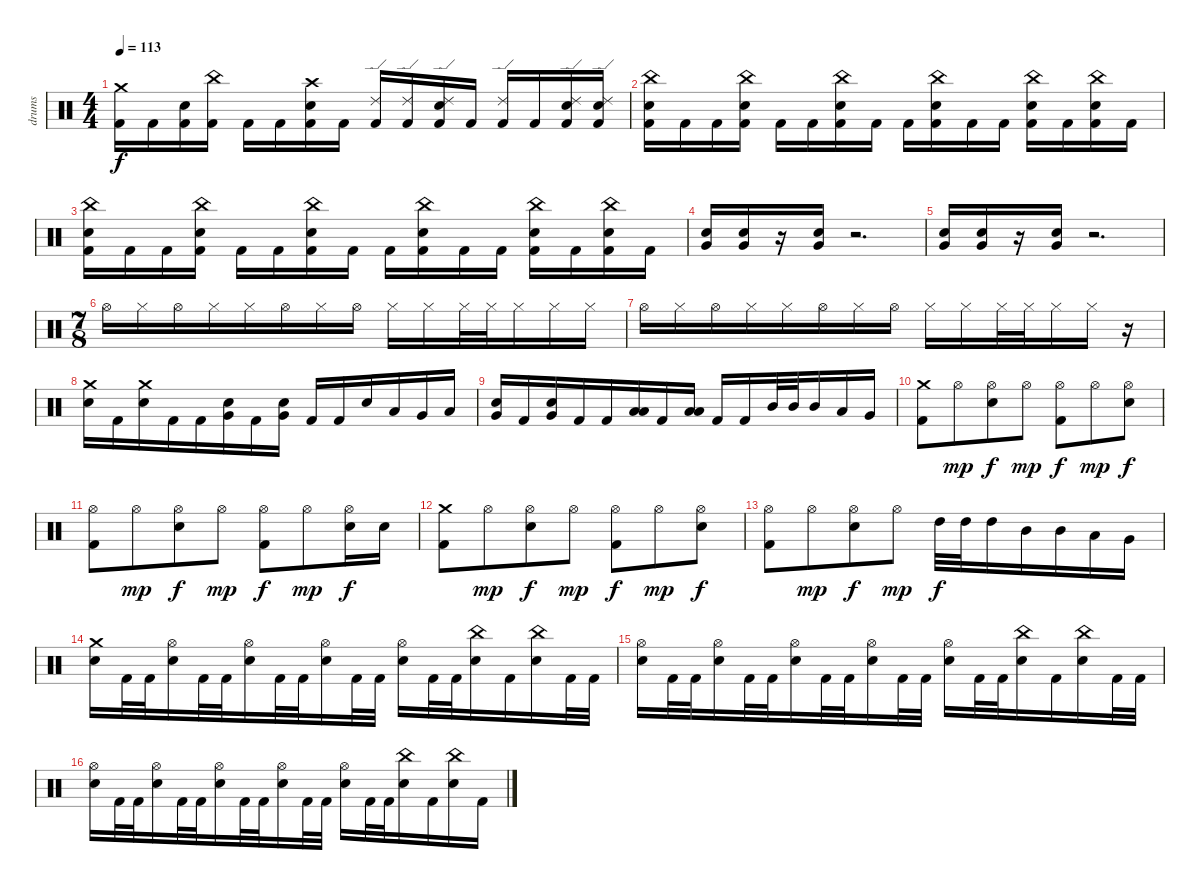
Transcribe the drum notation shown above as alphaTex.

\track ("drums" "drums") {instrument percussion}
\staff {score}
\articulation defaults
\ts (4 4)
\tempo 113
\clef neutral
\ks c
("Crash medium (hit)" "Kick (hit) 2").16{dy f} "Kick (hit) 2".16 ("Electric Snare (hit)" "Kick (hit) 2").16 ("China (hit)" "Kick (hit) 2").16 "Kick (hit) 2".16 "Kick (hit) 2".16 ("Crash high (hit)" "Electric Snare (hit)" "Kick (hit) 2").16 "Kick (hit) 2".16 ("Ride (edge) 2" "Kick (hit) 2").16 ("Ride (edge) 2" "Kick (hit) 2").16 ("Ride (edge) 2" "Electric Snare (hit)" "Kick (hit) 2").16 "Kick (hit) 2".16 ("Ride (edge) 2" "Kick (hit) 2").16 "Kick (hit) 2".16 ("Ride (edge) 2" "Electric Snare (hit)" "Kick (hit) 2").16 ("Ride (edge) 2" "Electric Snare (hit)" "Kick (hit) 2").16 |
("China (hit)" "Kick (hit) 2" "Electric Snare (hit)").16 "Kick (hit) 2".16 "Kick (hit) 2".16 ("China (hit)" "Electric Snare (hit)" "Kick (hit) 2").16 "Kick (hit) 2".16 "Kick (hit) 2".16 ("China (hit)" "Electric Snare (hit)" "Kick (hit) 2").16 "Kick (hit) 2".16 "Kick (hit) 2".16 ("China (hit)" "Electric Snare (hit)" "Kick (hit) 2").16 "Kick (hit) 2".16 "Kick (hit) 2".16 ("China (hit)" "Electric Snare (hit)" "Kick (hit) 2").16 "Kick (hit) 2".16 ("China (hit)" "Electric Snare (hit)" "Kick (hit) 2").16 "Kick (hit) 2".16 |
("China (hit)" "Kick (hit) 2" "Electric Snare (hit)").16 "Kick (hit) 2".16 "Kick (hit) 2".16 ("China (hit)" "Electric Snare (hit)" "Kick (hit) 2").16 "Kick (hit) 2".16 "Kick (hit) 2".16 ("China (hit)" "Electric Snare (hit)" "Kick (hit) 2").16 "Kick (hit) 2".16 "Kick (hit) 2".16 ("China (hit)" "Electric Snare (hit)" "Kick (hit) 2").16 "Kick (hit) 2".16 "Kick (hit) 2".16 ("China (hit)" "Electric Snare (hit)" "Kick (hit) 2").16 "Kick (hit) 2".16 ("China (hit)" "Electric Snare (hit)" "Kick (hit) 2").16 "Kick (hit) 2".16 |
("Very Low Tom (hit)" "Electric Snare (hit)").16 ("Very Low Tom (hit)" "Electric Snare (hit)").16 r.16 ("Very Low Tom (hit)" "Electric Snare (hit)").16 r.2{d} |
("Very Low Tom (hit)" "Electric Snare (hit)").16 ("Very Low Tom (hit)" "Electric Snare (hit)").16 r.16 ("Very Low Tom (hit)" "Electric Snare (hit)").16 r.2{d} |
\ts (7 8)
"Hi-Hat (open)".16 "Hi-Hat (closed)".16 "Hi-Hat (open)".16 "Hi-Hat (closed)".16 "Hi-Hat (closed)".16 "Hi-Hat (open)".16 "Hi-Hat (closed)".16 "Hi-Hat (open)".16 "Hi-Hat (closed)".16 "Hi-Hat (closed)".16 "Hi-Hat (closed)".32 "Hi-Hat (closed)".32 "Hi-Hat (closed)".16 "Hi-Hat (closed)".16 "Hi-Hat (closed)".16 |
"Hi-Hat (open)".16 "Hi-Hat (closed)".16 "Hi-Hat (open)".16 "Hi-Hat (closed)".16 "Hi-Hat (closed)".16 "Hi-Hat (open)".16 "Hi-Hat (closed)".16 "Hi-Hat (open)".16 "Hi-Hat (closed)".16 "Hi-Hat (closed)".16 "Hi-Hat (closed)".32 "Hi-Hat (closed)".32 "Hi-Hat (closed)".16 "Hi-Hat (closed)".16 r.16 |
("Crash medium (hit)" "Electric Snare (hit)").16 "Kick (hit) 2".16 ("Crash medium (hit)" "Electric Snare (hit)").16 "Kick (hit) 2".16 "Kick (hit) 2".16 ("Very Low Tom (hit)" "Electric Snare (hit)").16 "Kick (hit) 2".16 ("Very Low Tom (hit)" "Electric Snare (hit)").16 "Kick (hit) 2".16 "Kick (hit) 2".16 "Electric Snare (hit)".16 "Low Tom (hit)".16 "Very Low Tom (hit)".16 "Low Floor Tom (hit)".16 |
("Very Low Tom (hit)" "Electric Snare (hit)").16 "Kick (hit) 2".16 ("Very Low Tom (hit)" "Electric Snare (hit)").16 "Kick (hit) 2".16 "Kick (hit) 2".16 ("Low Tom (hit)" "Low Floor Tom (hit)").16 "Kick (hit) 2".16 ("Low Tom (hit)" "Low Floor Tom (hit)").16 "Kick (hit) 2".16 "Kick (hit) 2".16 "Mid Tom (hit)".32 "Mid Tom (hit)".32 "Mid Tom (hit)".16 "Low Tom (hit)".16 "Very Low Tom (hit)".16 |
("Kick (hit) 2" "Crash medium (hit)").8 "Hi-Hat (open)".8{dy mp} ("Electric Snare (hit)" "Hi-Hat (open)").8{dy f} "Hi-Hat (open)".8{dy mp} ("Kick (hit) 2" "Hi-Hat (open)").8{dy f} "Hi-Hat (open)".8{dy mp} ("Electric Snare (hit)" "Hi-Hat (open)").8{dy f} |
("Hi-Hat (open)" "Kick (hit) 2").8 "Hi-Hat (open)".8{dy mp} ("Electric Snare (hit)" "Hi-Hat (open)").8{dy f} "Hi-Hat (open)".8{dy mp} ("Kick (hit) 2" "Hi-Hat (open)").8{dy f} "Hi-Hat (open)".8{dy mp} ("Electric Snare (hit)" "Hi-Hat (open)").16{dy f} "Electric Snare (hit)".16 |
("Kick (hit) 2" "Crash medium (hit)").8 "Hi-Hat (open)".8{dy mp} ("Electric Snare (hit)" "Hi-Hat (open)").8{dy f} "Hi-Hat (open)".8{dy mp} ("Kick (hit) 2" "Hi-Hat (open)").8{dy f} "Hi-Hat (open)".8{dy mp} ("Electric Snare (hit)" "Hi-Hat (open)").8{dy f} |
("Hi-Hat (open)" "Kick (hit) 2").8 "Hi-Hat (open)".8{dy mp} ("Electric Snare (hit)" "Hi-Hat (open)").8{dy f} "Hi-Hat (open)".8{dy mp} "High Tom (hit)".32{dy f} "High Tom (hit)".32 "High Tom (hit)".16 "Mid Tom (hit)".16 "Mid Tom (hit)".16 "Low Tom (hit)".16 "Very Low Tom (hit)".16 |
("Crash medium (hit)" "Electric Snare (hit)").16 "Kick (hit) 2".32 "Kick (hit) 2".32 ("Hi-Hat (open)" "Electric Snare (hit)").16 "Kick (hit) 2".32 "Kick (hit) 2".32 ("Hi-Hat (open)" "Electric Snare (hit)").16 "Kick (hit) 2".32 "Kick (hit) 2".32 ("Hi-Hat (open)" "Electric Snare (hit)").16 "Kick (hit) 2".32 "Kick (hit) 2".32 ("Hi-Hat (open)" "Electric Snare (hit)").16 "Kick (hit) 2".32 "Kick (hit) 2".32 ("China (hit)" "Electric Snare (hit)").16 "Kick (hit) 2".16 ("China (hit)" "Electric Snare (hit)").16 "Kick (hit) 2".32 "Kick (hit) 2".32 |
("Hi-Hat (open)" "Electric Snare (hit)").16 "Kick (hit) 2".32 "Kick (hit) 2".32 ("Hi-Hat (open)" "Electric Snare (hit)").16 "Kick (hit) 2".32 "Kick (hit) 2".32 ("Hi-Hat (open)" "Electric Snare (hit)").16 "Kick (hit) 2".32 "Kick (hit) 2".32 ("Hi-Hat (open)" "Electric Snare (hit)").16 "Kick (hit) 2".32 "Kick (hit) 2".32 ("Hi-Hat (open)" "Electric Snare (hit)").16 "Kick (hit) 2".32 "Kick (hit) 2".32 ("China (hit)" "Electric Snare (hit)").16 "Kick (hit) 2".16 ("China (hit)" "Electric Snare (hit)").16 "Kick (hit) 2".32 "Kick (hit) 2".32 |
("Hi-Hat (open)" "Electric Snare (hit)").16 "Kick (hit) 2".32 "Kick (hit) 2".32 ("Hi-Hat (open)" "Electric Snare (hit)").16 "Kick (hit) 2".32 "Kick (hit) 2".32 ("Hi-Hat (open)" "Electric Snare (hit)").16 "Kick (hit) 2".32 "Kick (hit) 2".32 ("Hi-Hat (open)" "Electric Snare (hit)").16 "Kick (hit) 2".32 "Kick (hit) 2".32 ("Hi-Hat (open)" "Electric Snare (hit)").16 "Kick (hit) 2".32 "Kick (hit) 2".32 ("China (hit)" "Electric Snare (hit)").16 "Kick (hit) 2".16 ("China (hit)" "Electric Snare (hit)").16 "Kick (hit) 2".16
